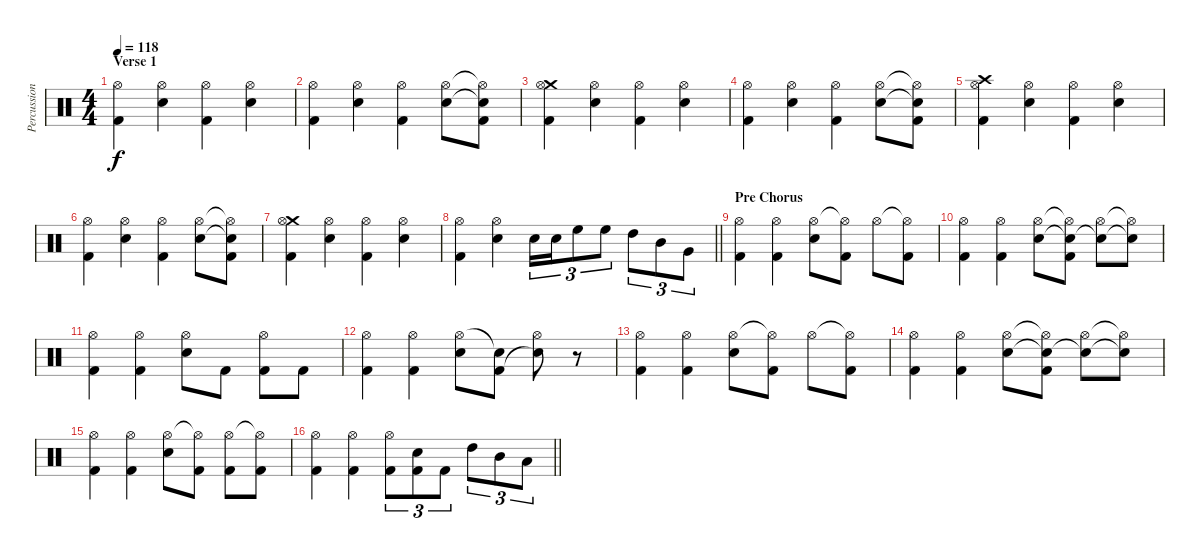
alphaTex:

\track ("Percussion" "Percussion") {instrument percussion}
\staff {score}
\articulation defaults
\ts (4 4)
\section ("" "Verse 1")
\tempo 118
\clef neutral
\ks c
("Hi-Hat (open)" "Kick (hit) 2").4{dy f} ("Hi-Hat (open)" "Electric Snare (hit)").4 ("Hi-Hat (open)" "Kick (hit) 2").4 ("Hi-Hat (open)" "Electric Snare (hit)").4 |
("Hi-Hat (open)" "Kick (hit) 2").4 ("Hi-Hat (open)" "Electric Snare (hit)").4 ("Hi-Hat (open)" "Kick (hit) 2").4 ("Hi-Hat (open)" "Electric Snare (hit)").8 ("Hi-Hat (open)"{t} "Electric Snare (hit)"{t} "Kick (hit) 2").8 |
("Crash medium (hit)" "Hi-Hat (open)" "Kick (hit) 2").4 ("Hi-Hat (open)" "Electric Snare (hit)").4 ("Hi-Hat (open)" "Kick (hit) 2").4 ("Hi-Hat (open)" "Electric Snare (hit)").4 |
("Hi-Hat (open)" "Kick (hit) 2").4 ("Hi-Hat (open)" "Electric Snare (hit)").4 ("Hi-Hat (open)" "Kick (hit) 2").4 ("Hi-Hat (open)" "Electric Snare (hit)").8 ("Hi-Hat (open)"{t} "Electric Snare (hit)"{t} "Kick (hit) 2").8 |
("Crash high (hit)" "Hi-Hat (open)" "Kick (hit) 2").4 ("Hi-Hat (open)" "Electric Snare (hit)").4 ("Hi-Hat (open)" "Kick (hit) 2").4 ("Hi-Hat (open)" "Electric Snare (hit)").4 |
("Hi-Hat (open)" "Kick (hit) 2").4 ("Hi-Hat (open)" "Electric Snare (hit)").4 ("Hi-Hat (open)" "Kick (hit) 2").4 ("Hi-Hat (open)" "Electric Snare (hit)").8 ("Hi-Hat (open)"{t} "Electric Snare (hit)"{t} "Kick (hit) 2").8 |
("Crash medium (hit)" "Hi-Hat (open)" "Kick (hit) 2").4 ("Hi-Hat (open)" "Electric Snare (hit)").4 ("Hi-Hat (open)" "Kick (hit) 2").4 ("Hi-Hat (open)" "Electric Snare (hit)").4 |
\barLineRight lightlight
("Hi-Hat (open)" "Kick (hit) 2").4 ("Hi-Hat (open)" "Electric Snare (hit)").4 "Electric Snare (hit)".16{tu (3 2)} "Electric Snare (hit)".16{tu (3 2)} "High Floor Tom (hit)".8{tu (3 2)} "High Floor Tom (hit)".8{tu (3 2)} "High Tom (hit)".8{tu (3 2)} "Mid Tom (hit)".8{tu (3 2)} "Very Low Tom (hit)".8{tu (3 2)} |
\section ("" "Pre Chorus")
("Hi-Hat (open)" "Kick (hit) 2").4 ("Hi-Hat (open)" "Kick (hit) 2").4 ("Hi-Hat (open)" "Electric Snare (hit)").8 ("Hi-Hat (open)"{t} "Kick (hit) 2").8 "Hi-Hat (open)".8 ("Hi-Hat (open)"{t} "Kick (hit) 2").8 |
("Hi-Hat (open)" "Kick (hit) 2").4 ("Hi-Hat (open)" "Kick (hit) 2").4 ("Hi-Hat (open)" "Electric Snare (hit)").8 ("Hi-Hat (open)"{t} "Electric Snare (hit)"{t} "Kick (hit) 2").8 ("Hi-Hat (open)" "Electric Snare (hit)"{t}).8 ("Hi-Hat (open)"{t} "Electric Snare (hit)"{t}).8 |
("Hi-Hat (open)" "Kick (hit) 2").4 ("Hi-Hat (open)" "Kick (hit) 2").4 ("Hi-Hat (open)" "Electric Snare (hit)").8 "Kick (hit) 2".8 ("Hi-Hat (open)" "Kick (hit) 2").8 "Kick (hit) 2".8 |
("Hi-Hat (open)" "Kick (hit) 2").4 ("Hi-Hat (open)" "Kick (hit) 2").4 ("Hi-Hat (open)" "Electric Snare (hit)").8 ("Electric Snare (hit)"{t} "Kick (hit) 2").8 ("Hi-Hat (open)" "Electric Snare (hit)"{t}).8 r.8 |
("Hi-Hat (open)" "Kick (hit) 2").4 ("Hi-Hat (open)" "Kick (hit) 2").4 ("Hi-Hat (open)" "Electric Snare (hit)").8 ("Hi-Hat (open)"{t} "Kick (hit) 2").8 "Hi-Hat (open)".8 ("Hi-Hat (open)"{t} "Kick (hit) 2").8 |
("Hi-Hat (open)" "Kick (hit) 2").4 ("Hi-Hat (open)" "Kick (hit) 2").4 ("Hi-Hat (open)" "Electric Snare (hit)").8 ("Hi-Hat (open)"{t} "Electric Snare (hit)"{t} "Kick (hit) 2").8 ("Hi-Hat (open)" "Electric Snare (hit)"{t}).8 ("Hi-Hat (open)"{t} "Electric Snare (hit)"{t}).8 |
("Hi-Hat (open)" "Kick (hit) 2").4 ("Hi-Hat (open)" "Kick (hit) 2").4 ("Hi-Hat (open)" "Electric Snare (hit)").8 ("Hi-Hat (open)"{t} "Kick (hit) 2").8 ("Hi-Hat (open)" "Kick (hit) 2").8 ("Hi-Hat (open)"{t} "Kick (hit) 2").8 |
\barLineRight lightlight
("Hi-Hat (open)" "Kick (hit) 2").4 ("Hi-Hat (open)" "Kick (hit) 2").4 ("Hi-Hat (open)" "Kick (hit) 2").8{tu (3 2)} ("Electric Snare (hit)" "Kick (hit) 2").8{tu (3 2)} "Kick (hit) 2".8{tu (3 2)} "High Tom (hit)".8{tu (3 2)} "Mid Tom (hit)".8{tu (3 2)} "Low Tom (hit)".8{tu (3 2)}
